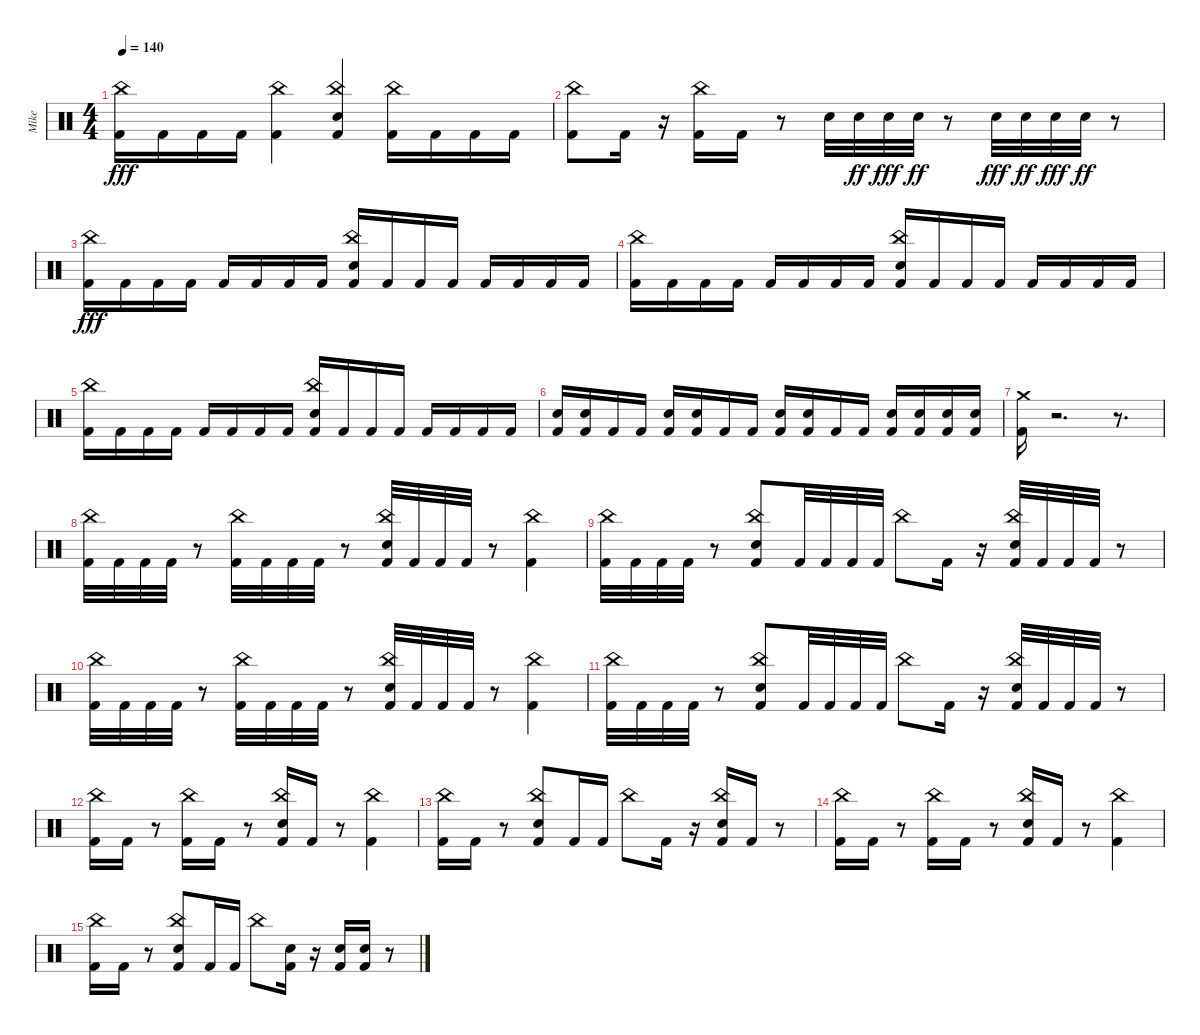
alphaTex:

\track ("Mike" "Mike") {instrument percussion}
\staff {score}
\articulation defaults
\ts (4 4)
\tempo 140
\clef neutral
\ks c
("Kick (hit) 2" "China (hit)").16{dy fff} "Kick (hit) 2".16 "Kick (hit) 2".16 "Kick (hit) 2".16 ("Kick (hit) 2" "China (hit)").4 ("Kick (hit) 2" "Electric Snare (hit)" "China (hit)").4 ("Kick (hit) 2" "China (hit)").16 "Kick (hit) 2".16 "Kick (hit) 2".16 "Kick (hit) 2".16 |
("Kick (hit) 2" "China (hit)").8 "Kick (hit) 2".16 r.16 ("Kick (hit) 2" "China (hit)").16 "Kick (hit) 2".16 r.8 "Electric Snare (hit)".32 "Electric Snare (hit)".32{dy ff} "Electric Snare (hit)".32{dy fff} "Electric Snare (hit)".32{dy ff} r.8 "Electric Snare (hit)".32{dy fff} "Electric Snare (hit)".32{dy ff} "Electric Snare (hit)".32{dy fff} "Electric Snare (hit)".32{dy ff} r.8 |
("Kick (hit) 2" "China (hit)").16{dy fff} "Kick (hit) 2".16 "Kick (hit) 2".16 "Kick (hit) 2".16 "Kick (hit) 2".16 "Kick (hit) 2".16 "Kick (hit) 2".16 "Kick (hit) 2".16 ("Kick (hit) 2" "Electric Snare (hit)" "China (hit)").16 "Kick (hit) 2".16 "Kick (hit) 2".16 "Kick (hit) 2".16 "Kick (hit) 2".16 "Kick (hit) 2".16 "Kick (hit) 2".16 "Kick (hit) 2".16 |
("Kick (hit) 2" "China (hit)").16 "Kick (hit) 2".16 "Kick (hit) 2".16 "Kick (hit) 2".16 "Kick (hit) 2".16 "Kick (hit) 2".16 "Kick (hit) 2".16 "Kick (hit) 2".16 ("Kick (hit) 2" "Electric Snare (hit)" "China (hit)").16 "Kick (hit) 2".16 "Kick (hit) 2".16 "Kick (hit) 2".16 "Kick (hit) 2".16 "Kick (hit) 2".16 "Kick (hit) 2".16 "Kick (hit) 2".16 |
("Kick (hit) 2" "China (hit)").16 "Kick (hit) 2".16 "Kick (hit) 2".16 "Kick (hit) 2".16 "Kick (hit) 2".16 "Kick (hit) 2".16 "Kick (hit) 2".16 "Kick (hit) 2".16 ("Kick (hit) 2" "Electric Snare (hit)" "China (hit)").16 "Kick (hit) 2".16 "Kick (hit) 2".16 "Kick (hit) 2".16 "Kick (hit) 2".16 "Kick (hit) 2".16 "Kick (hit) 2".16 "Kick (hit) 2".16 |
("Kick (hit) 2" "Electric Snare (hit)").16 ("Kick (hit) 2" "Electric Snare (hit)").16 "Kick (hit) 2".16 "Kick (hit) 2".16 ("Kick (hit) 2" "Electric Snare (hit)").16 ("Kick (hit) 2" "Electric Snare (hit)").16 "Kick (hit) 2".16 "Kick (hit) 2".16 ("Kick (hit) 2" "Electric Snare (hit)").16 ("Kick (hit) 2" "Electric Snare (hit)").16 "Kick (hit) 2".16 "Kick (hit) 2".16 ("Kick (hit) 2" "Electric Snare (hit)").16 ("Kick (hit) 2" "Electric Snare (hit)").16 ("Kick (hit) 2" "Electric Snare (hit)").16 ("Kick (hit) 2" "Electric Snare (hit)").16 |
("Kick (hit) 2" "Crash medium (hit)").16 r.2{d} r.8{d} |
("Kick (hit) 2" "China (hit)").32 "Kick (hit) 2".32 "Kick (hit) 2".32 "Kick (hit) 2".32 r.8 ("Kick (hit) 2" "China (hit)").32 "Kick (hit) 2".32 "Kick (hit) 2".32 "Kick (hit) 2".32 r.8 ("Kick (hit) 2" "Electric Snare (hit)" "China (hit)").32 "Kick (hit) 2".32 "Kick (hit) 2".32 "Kick (hit) 2".32 r.8 ("Kick (hit) 2" "China (hit)").4 |
("Kick (hit) 2" "China (hit)").32 "Kick (hit) 2".32 "Kick (hit) 2".32 "Kick (hit) 2".32 r.8 ("Kick (hit) 2" "Electric Snare (hit)" "China (hit)").8 "Kick (hit) 2".32 "Kick (hit) 2".32 "Kick (hit) 2".32 "Kick (hit) 2".32 "China (hit)".8 "Kick (hit) 2".16 r.16 ("Kick (hit) 2" "Electric Snare (hit)" "China (hit)").32 "Kick (hit) 2".32 "Kick (hit) 2".32 "Kick (hit) 2".32 r.8 |
("Kick (hit) 2" "China (hit)").32 "Kick (hit) 2".32 "Kick (hit) 2".32 "Kick (hit) 2".32 r.8 ("Kick (hit) 2" "China (hit)").32 "Kick (hit) 2".32 "Kick (hit) 2".32 "Kick (hit) 2".32 r.8 ("Kick (hit) 2" "Electric Snare (hit)" "China (hit)").32 "Kick (hit) 2".32 "Kick (hit) 2".32 "Kick (hit) 2".32 r.8 ("Kick (hit) 2" "China (hit)").4 |
("Kick (hit) 2" "China (hit)").32 "Kick (hit) 2".32 "Kick (hit) 2".32 "Kick (hit) 2".32 r.8 ("Kick (hit) 2" "Electric Snare (hit)" "China (hit)").8 "Kick (hit) 2".32 "Kick (hit) 2".32 "Kick (hit) 2".32 "Kick (hit) 2".32 "China (hit)".8 "Kick (hit) 2".16 r.16 ("Kick (hit) 2" "Electric Snare (hit)" "China (hit)").32 "Kick (hit) 2".32 "Kick (hit) 2".32 "Kick (hit) 2".32 r.8 |
("Kick (hit) 2" "China (hit)").16 "Kick (hit) 2".16 r.8 ("Kick (hit) 2" "China (hit)").16 "Kick (hit) 2".16 r.8 ("Kick (hit) 2" "Electric Snare (hit)" "China (hit)").16 "Kick (hit) 2".16 r.8 ("Kick (hit) 2" "China (hit)").4 |
("Kick (hit) 2" "China (hit)").16 "Kick (hit) 2".16 r.8 ("Kick (hit) 2" "Electric Snare (hit)" "China (hit)").8 "Kick (hit) 2".16 "Kick (hit) 2".16 "China (hit)".8 "Kick (hit) 2".16 r.16 ("Kick (hit) 2" "Electric Snare (hit)" "China (hit)").16 "Kick (hit) 2".16 r.8 |
("Kick (hit) 2" "China (hit)").16 "Kick (hit) 2".16 r.8 ("Kick (hit) 2" "China (hit)").16 "Kick (hit) 2".16 r.8 ("Kick (hit) 2" "Electric Snare (hit)" "China (hit)").16 "Kick (hit) 2".16 r.8 ("Kick (hit) 2" "China (hit)").4 |
("Kick (hit) 2" "China (hit)").16 "Kick (hit) 2".16 r.8 ("Kick (hit) 2" "Electric Snare (hit)" "China (hit)").8 "Kick (hit) 2".16 "Kick (hit) 2".16 "China (hit)".8 ("Kick (hit) 2" "Electric Snare (hit)").16 r.16 ("Kick (hit) 2" "Electric Snare (hit)").16 ("Kick (hit) 2" "Electric Snare (hit)").16 r.8
